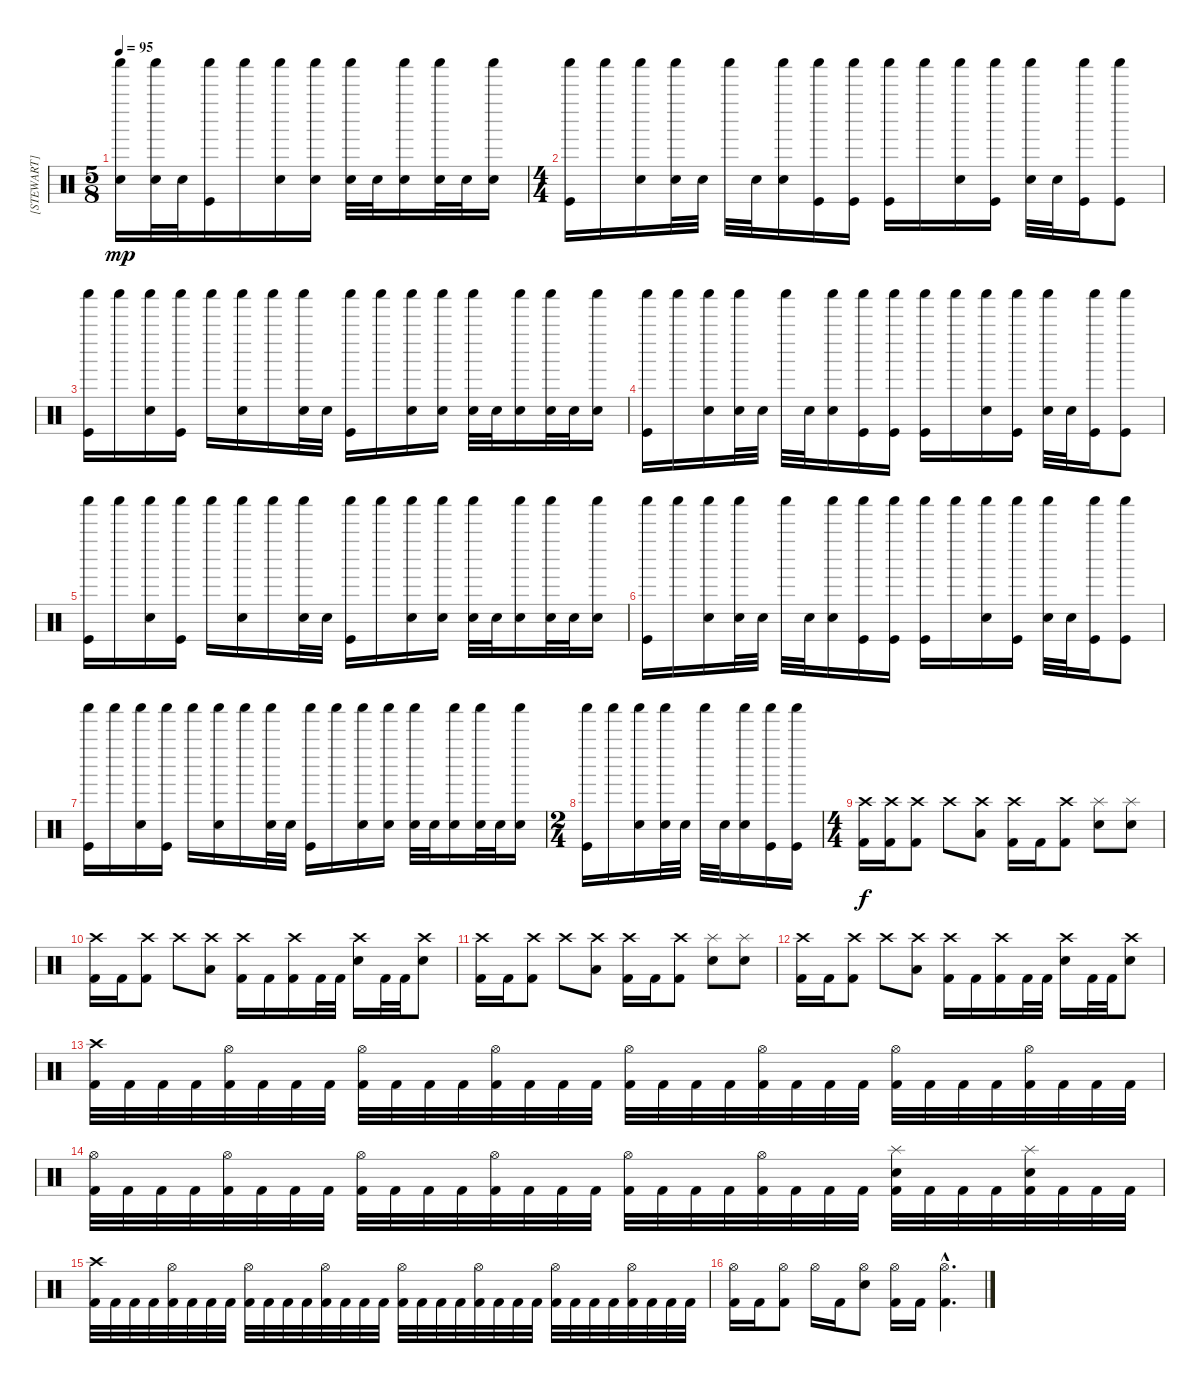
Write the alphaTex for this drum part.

\track ("[STEWART]" "[STEWART]") {instrument percussion}
\staff {score}
\articulation defaults
\ts (5 8)
\tempo 95
\clef neutral
\ks c
("Shaker (hit)" "Electric Snare (hit)").16{dy mp} ("Shaker (hit)" "Electric Snare (hit)").32 "Electric Snare (hit)".32 ("Shaker (hit)" "Kick (hit)").16 "Shaker (hit)".16 ("Shaker (hit)" "Electric Snare (hit)").16 ("Shaker (hit)" "Electric Snare (hit)").16 ("Shaker (hit)" "Electric Snare (hit)").32 "Electric Snare (hit)".32 ("Shaker (hit)" "Electric Snare (hit)").16 ("Shaker (hit)" "Electric Snare (hit)").32 "Electric Snare (hit)".32 ("Shaker (hit)" "Electric Snare (hit)").16 |
\ts (4 4)
("Shaker (hit)" "Kick (hit)").16 "Shaker (hit)".16 ("Shaker (hit)" "Electric Snare (hit)").16 ("Shaker (hit)" "Electric Snare (hit)").32 "Electric Snare (hit)".32 "Shaker (hit)".32 "Electric Snare (hit)".32 ("Shaker (hit)" "Electric Snare (hit)").16 ("Shaker (hit)" "Kick (hit)").16 ("Shaker (hit)" "Kick (hit)").16 ("Shaker (hit)" "Kick (hit)").16 "Shaker (hit)".16 ("Shaker (hit)" "Electric Snare (hit)").16 ("Shaker (hit)" "Kick (hit)").16 ("Shaker (hit)" "Electric Snare (hit)").32 "Electric Snare (hit)".32 ("Shaker (hit)" "Kick (hit)").16 ("Shaker (hit)" "Kick (hit)").8 |
("Shaker (hit)" "Kick (hit)").16 "Shaker (hit)".16 ("Shaker (hit)" "Electric Snare (hit)").16 ("Shaker (hit)" "Kick (hit)").16 "Shaker (hit)".16 ("Shaker (hit)" "Electric Snare (hit)").16 "Shaker (hit)".16 ("Shaker (hit)" "Electric Snare (hit)").32 "Electric Snare (hit)".32 ("Shaker (hit)" "Kick (hit)").16 "Shaker (hit)".16 ("Shaker (hit)" "Electric Snare (hit)").16 ("Shaker (hit)" "Electric Snare (hit)").16 ("Shaker (hit)" "Electric Snare (hit)").32 "Electric Snare (hit)".32 ("Shaker (hit)" "Electric Snare (hit)").16 ("Shaker (hit)" "Electric Snare (hit)").32 "Electric Snare (hit)".32 ("Shaker (hit)" "Electric Snare (hit)").16 |
("Shaker (hit)" "Kick (hit)").16 "Shaker (hit)".16 ("Shaker (hit)" "Electric Snare (hit)").16 ("Shaker (hit)" "Electric Snare (hit)").32 "Electric Snare (hit)".32 "Shaker (hit)".32 "Electric Snare (hit)".32 ("Shaker (hit)" "Electric Snare (hit)").16 ("Shaker (hit)" "Kick (hit)").16 ("Shaker (hit)" "Kick (hit)").16 ("Shaker (hit)" "Kick (hit)").16 "Shaker (hit)".16 ("Shaker (hit)" "Electric Snare (hit)").16 ("Shaker (hit)" "Kick (hit)").16 ("Shaker (hit)" "Electric Snare (hit)").32 "Electric Snare (hit)".32 ("Shaker (hit)" "Kick (hit)").16 ("Shaker (hit)" "Kick (hit)").8 |
("Shaker (hit)" "Kick (hit)").16 "Shaker (hit)".16 ("Shaker (hit)" "Electric Snare (hit)").16 ("Shaker (hit)" "Kick (hit)").16 "Shaker (hit)".16 ("Shaker (hit)" "Electric Snare (hit)").16 "Shaker (hit)".16 ("Shaker (hit)" "Electric Snare (hit)").32 "Electric Snare (hit)".32 ("Shaker (hit)" "Kick (hit)").16 "Shaker (hit)".16 ("Shaker (hit)" "Electric Snare (hit)").16 ("Shaker (hit)" "Electric Snare (hit)").16 ("Shaker (hit)" "Electric Snare (hit)").32 "Electric Snare (hit)".32 ("Shaker (hit)" "Electric Snare (hit)").16 ("Shaker (hit)" "Electric Snare (hit)").32 "Electric Snare (hit)".32 ("Shaker (hit)" "Electric Snare (hit)").16 |
("Shaker (hit)" "Kick (hit)").16 "Shaker (hit)".16 ("Shaker (hit)" "Electric Snare (hit)").16 ("Shaker (hit)" "Electric Snare (hit)").32 "Electric Snare (hit)".32 "Shaker (hit)".32 "Electric Snare (hit)".32 ("Shaker (hit)" "Electric Snare (hit)").16 ("Shaker (hit)" "Kick (hit)").16 ("Shaker (hit)" "Kick (hit)").16 ("Shaker (hit)" "Kick (hit)").16 "Shaker (hit)".16 ("Shaker (hit)" "Electric Snare (hit)").16 ("Shaker (hit)" "Kick (hit)").16 ("Shaker (hit)" "Electric Snare (hit)").32 "Electric Snare (hit)".32 ("Shaker (hit)" "Kick (hit)").16 ("Shaker (hit)" "Kick (hit)").8 |
("Shaker (hit)" "Kick (hit)").16 "Shaker (hit)".16 ("Shaker (hit)" "Electric Snare (hit)").16 ("Shaker (hit)" "Kick (hit)").16 "Shaker (hit)".16 ("Shaker (hit)" "Electric Snare (hit)").16 "Shaker (hit)".16 ("Shaker (hit)" "Electric Snare (hit)").32 "Electric Snare (hit)".32 ("Shaker (hit)" "Kick (hit)").16 "Shaker (hit)".16 ("Shaker (hit)" "Electric Snare (hit)").16 ("Shaker (hit)" "Electric Snare (hit)").16 ("Shaker (hit)" "Electric Snare (hit)").32 "Electric Snare (hit)".32 ("Shaker (hit)" "Electric Snare (hit)").16 ("Shaker (hit)" "Electric Snare (hit)").32 "Electric Snare (hit)".32 ("Shaker (hit)" "Electric Snare (hit)").16 |
\ts (2 4)
("Shaker (hit)" "Kick (hit)").16 "Shaker (hit)".16 ("Shaker (hit)" "Electric Snare (hit)").16 ("Shaker (hit)" "Electric Snare (hit)").32 "Electric Snare (hit)".32 "Shaker (hit)".32 "Electric Snare (hit)".32 ("Shaker (hit)" "Electric Snare (hit)").16 ("Shaker (hit)" "Kick (hit)").16 ("Shaker (hit)" "Kick (hit)").16 |
\ts (4 4)
("Crash high (hit)" "Kick (hit) 2").16{dy f} ("Crash high (hit)" "Kick (hit) 2").16 ("Crash high (hit)" "Kick (hit) 2").8 "Crash high (hit)".8 ("Crash high (hit)" "Low Tom (hit)").8 ("Crash high (hit)" "Kick (hit) 2").16 "Kick (hit) 2".16 ("Crash high (hit)" "Kick (hit) 2").8 ("Splash (hit)" "Electric Snare (hit)").8 ("Splash (hit)" "Electric Snare (hit)").8 |
("Crash high (hit)" "Kick (hit) 2").16 "Kick (hit) 2".16 ("Crash high (hit)" "Kick (hit) 2").8 "Crash high (hit)".8 ("Crash high (hit)" "Low Tom (hit)").8 ("Crash high (hit)" "Kick (hit) 2").16 "Kick (hit) 2".16 ("Crash high (hit)" "Kick (hit) 2").16 "Kick (hit) 2".32 "Kick (hit) 2".32 ("Crash high (hit)" "Electric Snare (hit)").16 "Kick (hit) 2".32 "Kick (hit) 2".32 ("Crash high (hit)" "Electric Snare (hit)").8 |
("Crash high (hit)" "Kick (hit) 2").16 "Kick (hit) 2".16 ("Crash high (hit)" "Kick (hit) 2").8 "Crash high (hit)".8 ("Crash high (hit)" "Low Tom (hit)").8 ("Crash high (hit)" "Kick (hit) 2").16 "Kick (hit) 2".16 ("Crash high (hit)" "Kick (hit) 2").8 ("Splash (hit)" "Electric Snare (hit)").8 ("Splash (hit)" "Electric Snare (hit)").8 |
("Crash high (hit)" "Kick (hit) 2").16 "Kick (hit) 2".16 ("Crash high (hit)" "Kick (hit) 2").8 "Crash high (hit)".8 ("Crash high (hit)" "Low Tom (hit)").8 ("Crash high (hit)" "Kick (hit) 2").16 "Kick (hit) 2".16 ("Crash high (hit)" "Kick (hit) 2").16 "Kick (hit) 2".32 "Kick (hit) 2".32 ("Crash high (hit)" "Electric Snare (hit)").16 "Kick (hit) 2".32 "Kick (hit) 2".32 ("Crash high (hit)" "Electric Snare (hit)").8 |
("Crash high (hit)" "Kick (hit) 2").32 "Kick (hit) 2".32 "Kick (hit) 2".32 "Kick (hit) 2".32 ("Hi-Hat (open)" "Kick (hit) 2").32 "Kick (hit) 2".32 "Kick (hit) 2".32 "Kick (hit) 2".32 ("Hi-Hat (open)" "Kick (hit) 2").32 "Kick (hit) 2".32 "Kick (hit) 2".32 "Kick (hit) 2".32 ("Hi-Hat (open)" "Kick (hit) 2").32 "Kick (hit) 2".32 "Kick (hit) 2".32 "Kick (hit) 2".32 ("Hi-Hat (open)" "Kick (hit) 2").32 "Kick (hit) 2".32 "Kick (hit) 2".32 "Kick (hit) 2".32 ("Hi-Hat (open)" "Kick (hit) 2").32 "Kick (hit) 2".32 "Kick (hit) 2".32 "Kick (hit) 2".32 ("Hi-Hat (open)" "Kick (hit) 2").32 "Kick (hit) 2".32 "Kick (hit) 2".32 "Kick (hit) 2".32 ("Hi-Hat (open)" "Kick (hit) 2").32 "Kick (hit) 2".32 "Kick (hit) 2".32 "Kick (hit) 2".32 |
("Hi-Hat (open)" "Kick (hit) 2").32 "Kick (hit) 2".32 "Kick (hit) 2".32 "Kick (hit) 2".32 ("Hi-Hat (open)" "Kick (hit) 2").32 "Kick (hit) 2".32 "Kick (hit) 2".32 "Kick (hit) 2".32 ("Hi-Hat (open)" "Kick (hit) 2").32 "Kick (hit) 2".32 "Kick (hit) 2".32 "Kick (hit) 2".32 ("Hi-Hat (open)" "Kick (hit) 2").32 "Kick (hit) 2".32 "Kick (hit) 2".32 "Kick (hit) 2".32 ("Hi-Hat (open)" "Kick (hit) 2").32 "Kick (hit) 2".32 "Kick (hit) 2".32 "Kick (hit) 2".32 ("Hi-Hat (open)" "Kick (hit) 2").32 "Kick (hit) 2".32 "Kick (hit) 2".32 "Kick (hit) 2".32 ("Splash (hit)" "Electric Snare (hit)" "Kick (hit) 2").32 "Kick (hit) 2".32 "Kick (hit) 2".32 "Kick (hit) 2".32 ("Splash (hit)" "Electric Snare (hit)" "Kick (hit) 2").32 "Kick (hit) 2".32 "Kick (hit) 2".32 "Kick (hit) 2".32 |
("Crash high (hit)" "Kick (hit) 2").32 "Kick (hit) 2".32 "Kick (hit) 2".32 "Kick (hit) 2".32 ("Hi-Hat (open)" "Kick (hit) 2").32 "Kick (hit) 2".32 "Kick (hit) 2".32 "Kick (hit) 2".32 ("Hi-Hat (open)" "Kick (hit) 2").32 "Kick (hit) 2".32 "Kick (hit) 2".32 "Kick (hit) 2".32 ("Hi-Hat (open)" "Kick (hit) 2").32 "Kick (hit) 2".32 "Kick (hit) 2".32 "Kick (hit) 2".32 ("Hi-Hat (open)" "Kick (hit) 2").32 "Kick (hit) 2".32 "Kick (hit) 2".32 "Kick (hit) 2".32 ("Hi-Hat (open)" "Kick (hit) 2").32 "Kick (hit) 2".32 "Kick (hit) 2".32 "Kick (hit) 2".32 ("Hi-Hat (open)" "Kick (hit) 2").32 "Kick (hit) 2".32 "Kick (hit) 2".32 "Kick (hit) 2".32 ("Hi-Hat (open)" "Kick (hit) 2").32 "Kick (hit) 2".32 "Kick (hit) 2".32 "Kick (hit) 2".32 |
("Hi-Hat (open)" "Kick (hit) 2").16 "Kick (hit) 2".16 ("Hi-Hat (open)" "Kick (hit) 2").8 "Hi-Hat (open)".16 "Kick (hit) 2".16 ("Hi-Hat (open)" "Electric Snare (hit)").8 ("Hi-Hat (open)" "Kick (hit) 2").16 "Kick (hit) 2".16 ("Hi-Hat (open)"{hac} "Kick (hit) 2"{hac}).4{d}
